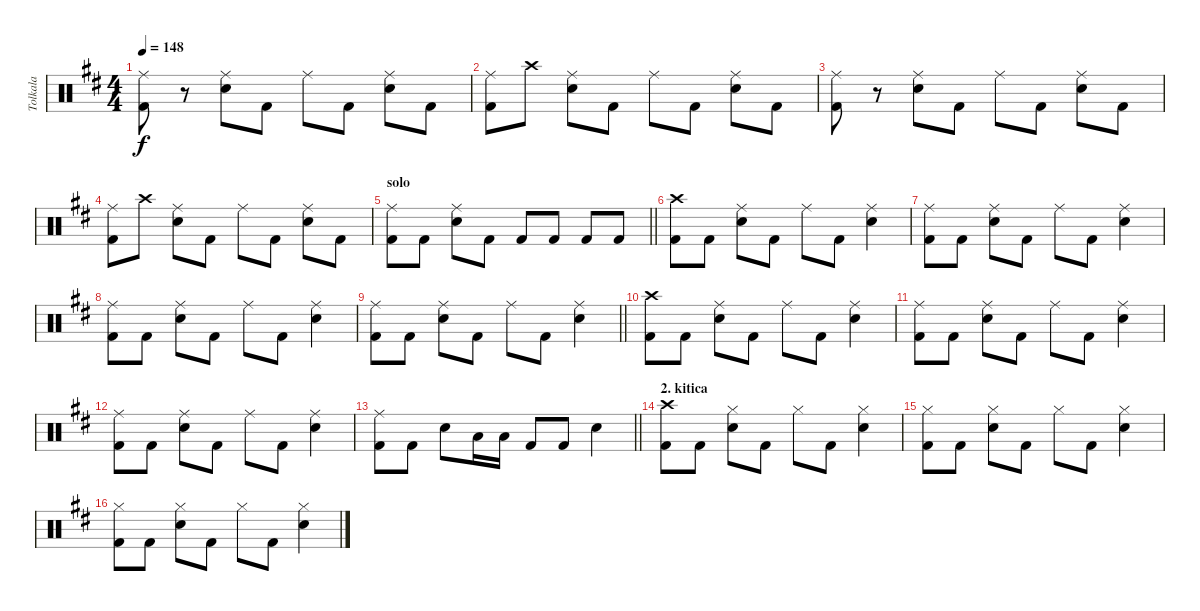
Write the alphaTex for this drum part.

\track ("Tolkala" "Tolkala") {instrument percussion}
\staff {score}
\articulation defaults
\ts (4 4)
\tempo 148
\clef neutral
\ks d
("Kick (hit) 2" "Ride (middle)").8{dy f} r.8 ("Snare (hit) 2" "Ride (middle)").8 "Kick (hit) 2".8 "Ride (middle)".8 "Kick (hit) 2".8 ("Snare (hit) 2" "Ride (middle)").8 "Kick (hit) 2".8 |
("Kick (hit) 2" "Ride (middle)").8 "Crash high (hit)".8 ("Snare (hit) 2" "Ride (middle)").8 "Kick (hit) 2".8 "Ride (middle)".8 "Kick (hit) 2".8 ("Snare (hit) 2" "Ride (middle)").8 "Kick (hit) 2".8 |
("Kick (hit) 2" "Ride (middle)").8 r.8 ("Snare (hit) 2" "Ride (middle)").8 "Kick (hit) 2".8 "Ride (middle)".8 "Kick (hit) 2".8 ("Snare (hit) 2" "Ride (middle)").8 "Kick (hit) 2".8 |
("Kick (hit) 2" "Ride (middle)").8 "Crash high (hit)".8 ("Snare (hit) 2" "Ride (middle)").8 "Kick (hit) 2".8 "Ride (middle)".8 "Kick (hit) 2".8 ("Snare (hit) 2" "Ride (middle)").8 "Kick (hit) 2".8 |
\section ("" "solo")
\barLineRight lightlight
("Kick (hit) 2" "Ride (middle)").8 "Kick (hit) 2".8 ("Snare (hit) 2" "Ride (middle)").8 "Kick (hit) 2".8 "Kick (hit) 2".8 "Kick (hit) 2".8 "Kick (hit) 2".8 "Kick (hit) 2".8 |
("Crash high (hit)" "Kick (hit) 2").8 "Kick (hit) 2".8 ("Snare (hit) 2" "Ride (middle)").8 "Kick (hit) 2".8 "Ride (middle)".8 "Kick (hit) 2".8 ("Snare (hit) 2" "Ride (middle)").4 |
("Kick (hit) 2" "Ride (middle)").8 "Kick (hit) 2".8 ("Snare (hit) 2" "Ride (middle)").8 "Kick (hit) 2".8 "Ride (middle)".8 "Kick (hit) 2".8 ("Snare (hit) 2" "Ride (middle)").4 |
("Kick (hit) 2" "Ride (middle)").8 "Kick (hit) 2".8 ("Snare (hit) 2" "Ride (middle)").8 "Kick (hit) 2".8 "Ride (middle)".8 "Kick (hit) 2".8 ("Snare (hit) 2" "Ride (middle)").4 |
\barLineRight lightlight
("Kick (hit) 2" "Ride (middle)").8 "Kick (hit) 2".8 ("Snare (hit) 2" "Ride (middle)").8 "Kick (hit) 2".8 "Ride (middle)".8 "Kick (hit) 2".8 ("Snare (hit) 2" "Ride (middle)").4 |
("Crash high (hit)" "Kick (hit) 2").8 "Kick (hit) 2".8 ("Snare (hit) 2" "Ride (middle)").8 "Kick (hit) 2".8 "Ride (middle)".8 "Kick (hit) 2".8 ("Snare (hit) 2" "Ride (middle)").4 |
("Kick (hit) 2" "Ride (middle)").8 "Kick (hit) 2".8 ("Snare (hit) 2" "Ride (middle)").8 "Kick (hit) 2".8 "Ride (middle)".8 "Kick (hit) 2".8 ("Snare (hit) 2" "Ride (middle)").4 |
("Kick (hit) 2" "Ride (middle)").8 "Kick (hit) 2".8 ("Snare (hit) 2" "Ride (middle)").8 "Kick (hit) 2".8 "Ride (middle)".8 "Kick (hit) 2".8 ("Snare (hit) 2" "Ride (middle)").4 |
\barLineRight lightlight
("Kick (hit) 2" "Ride (middle)").8 "Kick (hit) 2".8 "Snare (hit) 2".8 "Low Tom (hit)".16 "Low Tom (hit)".16 "Kick (hit) 2".8 "Kick (hit) 2".8 "Snare (hit) 2".4 |
\section ("" "2. kitica")
("Crash high (hit)" "Kick (hit) 2").8 "Kick (hit) 2".8 ("Snare (hit) 2" "Hi-Hat (closed)").8 "Kick (hit) 2".8 "Hi-Hat (closed)".8 "Kick (hit) 2".8 ("Snare (hit) 2" "Hi-Hat (closed)").4 |
("Kick (hit) 2" "Hi-Hat (closed)").8 "Kick (hit) 2".8 ("Snare (hit) 2" "Hi-Hat (closed)").8 "Kick (hit) 2".8 "Hi-Hat (closed)".8 "Kick (hit) 2".8 ("Snare (hit) 2" "Hi-Hat (closed)").4 |
("Kick (hit) 2" "Hi-Hat (closed)").8 "Kick (hit) 2".8 ("Snare (hit) 2" "Hi-Hat (closed)").8 "Kick (hit) 2".8 "Hi-Hat (closed)".8 "Kick (hit) 2".8 ("Snare (hit) 2" "Hi-Hat (closed)").4
